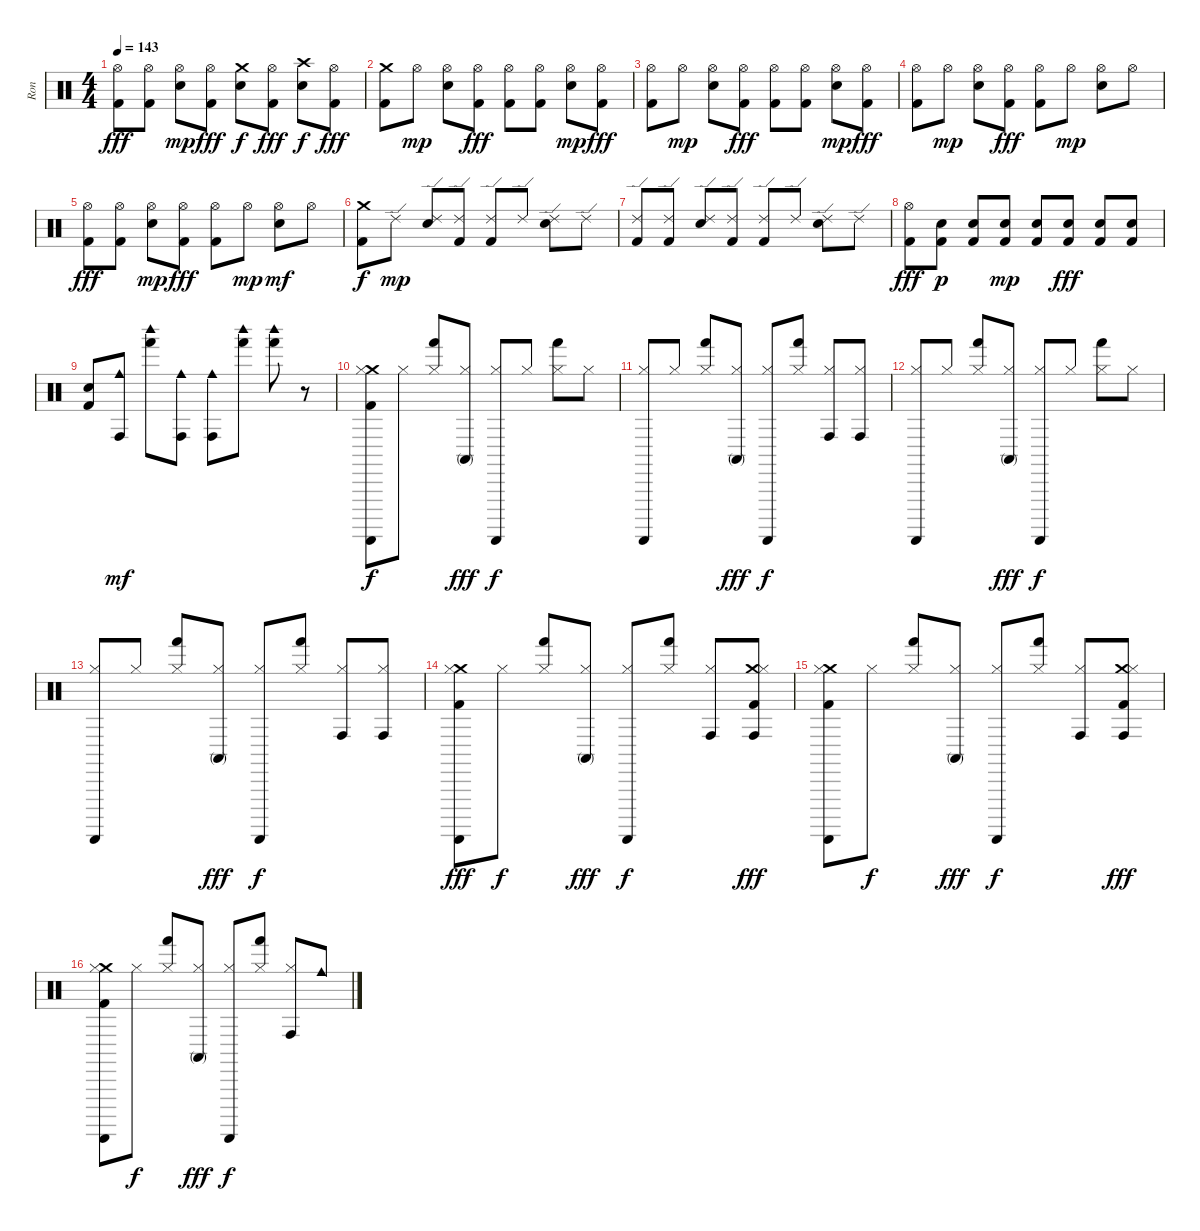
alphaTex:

\track ("Ron" "Ron") {instrument percussion}
\staff {score}
\articulation defaults
\ts (4 4)
\tempo 143
\clef neutral
\ks c
("Hi-Hat (open)" "Kick (hit) 2").8{dy fff} ("Hi-Hat (open)" "Kick (hit) 2").8 ("Hi-Hat (open)" "Snare (hit) 2").8{dy mp} ("Hi-Hat (open)" "Kick (hit) 2").8{dy fff} ("Crash medium (hit)" "Snare (hit) 2").8{dy f} ("Hi-Hat (open)" "Kick (hit) 2").8{dy fff} ("Crash high (hit)" "Snare (hit) 2").8{dy f} ("Hi-Hat (open)" "Kick (hit) 2").8{dy fff} |
("Crash medium (hit)" "Kick (hit) 2").8 "Hi-Hat (open)".8{dy mp} ("Hi-Hat (open)" "Snare (hit) 2").8 ("Hi-Hat (open)" "Kick (hit) 2").8{dy fff} ("Hi-Hat (open)" "Kick (hit) 2").8 ("Hi-Hat (open)" "Kick (hit) 2").8 ("Hi-Hat (open)" "Snare (hit) 2").8{dy mp} ("Hi-Hat (open)" "Kick (hit) 2").8{dy fff} |
("Hi-Hat (open)" "Kick (hit) 2").8 "Hi-Hat (open)".8{dy mp} ("Hi-Hat (open)" "Snare (hit) 2").8 ("Hi-Hat (open)" "Kick (hit) 2").8{dy fff} ("Hi-Hat (open)" "Kick (hit) 2").8 ("Hi-Hat (open)" "Kick (hit) 2").8 ("Hi-Hat (open)" "Snare (hit) 2").8{dy mp} ("Hi-Hat (open)" "Kick (hit) 2").8{dy fff} |
("Hi-Hat (open)" "Kick (hit) 2").8 "Hi-Hat (open)".8{dy mp} ("Hi-Hat (open)" "Snare (hit) 2").8 ("Hi-Hat (open)" "Kick (hit) 2").8{dy fff} ("Hi-Hat (open)" "Kick (hit) 2").8 "Hi-Hat (open)".8{dy mp} ("Hi-Hat (open)" "Snare (hit) 2").8 "Hi-Hat (open)".8 |
("Hi-Hat (open)" "Kick (hit) 2").8{dy fff} ("Hi-Hat (open)" "Kick (hit) 2").8 ("Hi-Hat (open)" "Snare (hit) 2").8{dy mp} ("Hi-Hat (open)" "Kick (hit) 2").8{dy fff} ("Hi-Hat (open)" "Kick (hit) 2").8 "Hi-Hat (open)".8{dy mp} ("Hi-Hat (open)" "Snare (hit) 2").8{dy mf} "Hi-Hat (open)".8 |
("Crash medium (hit)" "Kick (hit) 2").8{dy f} "Ride (edge) 2".8{dy mp} ("Ride (edge) 2" "Snare (hit) 2").8 ("Ride (edge) 2" "Kick (hit) 2").8 ("Ride (edge) 2" "Kick (hit) 2").8 "Ride (edge) 2".8 ("Ride (edge) 2" "Snare (hit) 2").8 "Ride (edge) 2".8 |
("Ride (edge) 2" "Kick (hit) 2").8 ("Ride (edge) 2" "Kick (hit) 2").8 ("Ride (edge) 2" "Snare (hit) 2").8 ("Ride (edge) 2" "Kick (hit) 2").8 ("Ride (edge) 2" "Kick (hit) 2").8 "Ride (edge) 2".8 ("Ride (edge) 2" "Snare (hit) 2").8 "Ride (edge) 2".8 |
("Hi-Hat (open)" "Kick (hit) 2").8{dy fff} ("Snare (hit) 2" "Kick (hit) 2").8{dy p} ("Snare (hit) 2" "Kick (hit) 2").8 ("Snare (hit) 2" "Kick (hit) 2").8{dy mp} ("Snare (hit) 2" "Kick (hit) 2").8 ("Snare (hit) 2" "Kick (hit) 2").8{dy fff} ("Snare (hit) 2" "Kick (hit) 2").8 ("Snare (hit) 2" "Kick (hit) 2").8 |
("Snare (hit) 2" "Kick (hit) 2").8 ("Conga high (hit)" "Cowbell medium (hit)").8{dy mf} ("Hand (hit)" "Woodblock high (hit)").8 ("Conga high (hit)" "Cowbell medium (hit)").8 ("Conga high (hit)" "Cowbell medium (hit)").8 ("Hand (hit)" "Woodblock high (hit)").8 ("Hand (hit)" "Woodblock high (hit)").8 r.8 |
("Crash medium (hit)" "Kick (hit) 2" "Guiro (scrap-return)" "Hi-Hat (closed)").8{dy f} "Hi-Hat (closed)".8 ("Hand (hit)" "Hi-Hat (closed)").8 ("Conga high (mute)" "Hi-Hat (closed)").8{dy fff} ("Guiro (scrap-return)" "Hi-Hat (closed)").8{dy f} "Hi-Hat (closed)".8 ("Hand (hit)" "Hi-Hat (closed)").8 "Hi-Hat (closed)".8 |
("Guiro (scrap-return)" "Hi-Hat (closed)").8 "Hi-Hat (closed)".8 ("Hand (hit)" "Hi-Hat (closed)").8 ("Conga high (mute)" "Hi-Hat (closed)").8{dy fff} ("Guiro (scrap-return)" "Hi-Hat (closed)").8{dy f} ("Hand (hit)" "Hi-Hat (closed)").8 ("Conga high (hit)" "Hi-Hat (closed)").8 ("Conga high (hit)" "Hi-Hat (closed)").8 |
("Guiro (scrap-return)" "Hi-Hat (closed)").8 "Hi-Hat (closed)".8 ("Hand (hit)" "Hi-Hat (closed)").8 ("Conga high (mute)" "Hi-Hat (closed)").8{dy fff} ("Guiro (scrap-return)" "Hi-Hat (closed)").8{dy f} "Hi-Hat (closed)".8 ("Hand (hit)" "Hi-Hat (closed)").8 "Hi-Hat (closed)".8 |
("Guiro (scrap-return)" "Hi-Hat (closed)").8 "Hi-Hat (closed)".8 ("Hand (hit)" "Hi-Hat (closed)").8 ("Conga high (mute)" "Hi-Hat (closed)").8{dy fff} ("Guiro (scrap-return)" "Hi-Hat (closed)").8{dy f} ("Hand (hit)" "Hi-Hat (closed)").8 ("Conga high (hit)" "Hi-Hat (closed)").8 ("Conga high (hit)" "Hi-Hat (closed)").8 |
("Guiro (scrap-return)" "Crash medium (hit)" "Kick (hit) 2" "Hi-Hat (closed)").8{dy fff} "Hi-Hat (closed)".8{dy f} ("Hand (hit)" "Hi-Hat (closed)").8 ("Conga high (mute)" "Hi-Hat (closed)").8{dy fff} ("Guiro (scrap-return)" "Hi-Hat (closed)").8{dy f} ("Hand (hit)" "Hi-Hat (closed)").8 ("Conga high (hit)" "Hi-Hat (closed)").8 ("Crash medium (hit)" "Kick (hit) 2" "Conga high (hit)" "Hi-Hat (closed)").8{dy fff} |
("Guiro (scrap-return)" "Crash medium (hit)" "Kick (hit) 2" "Hi-Hat (closed)").8 "Hi-Hat (closed)".8{dy f} ("Hand (hit)" "Hi-Hat (closed)").8 ("Conga high (mute)" "Hi-Hat (closed)").8{dy fff} ("Guiro (scrap-return)" "Hi-Hat (closed)").8{dy f} ("Hand (hit)" "Hi-Hat (closed)").8 ("Conga high (hit)" "Hi-Hat (closed)").8 ("Crash medium (hit)" "Kick (hit) 2" "Conga high (hit)" "Hi-Hat (closed)").8{dy fff} |
("Guiro (scrap-return)" "Crash medium (hit)" "Kick (hit) 2" "Hi-Hat (closed)").8 "Hi-Hat (closed)".8{dy f} ("Hand (hit)" "Hi-Hat (closed)").8 ("Conga high (mute)" "Hi-Hat (closed)").8{dy fff} ("Guiro (scrap-return)" "Hi-Hat (closed)").8{dy f} ("Hand (hit)" "Hi-Hat (closed)").8 ("Conga high (hit)" "Hi-Hat (closed)").8 "Cowbell medium (hit)".8
